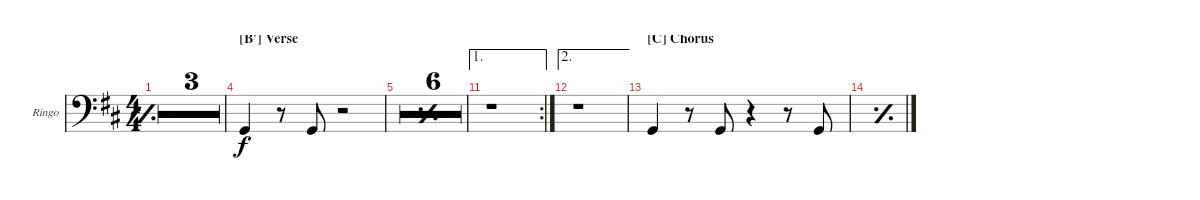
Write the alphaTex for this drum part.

\defaultSystemsLayout 4
\bracketExtendMode groupsimilarinstruments
\firstSystemTrackNameOrientation horizontal
\otherSystemsTrackNameOrientation horizontal
\track ("Ringo Starr - Legs" "Ringo") {multiBarRest instrument percussion}
\staff {score}
\articulation defaults
\ts (4 4)
\tempo 111
\clef f4
\simile simple
\scale
0.333333
\ks d
|
\scale
0.333333 |
\simile none
\scale
0.333333 r.1 |
\section ("B'" "Verse")
\scale
0.333333 "Kick (hit)".4 r.8 "Kick (hit)".8 r.2 |
\simile simple
\scale
0.333333 |
\scale
0.333333 |
\scale
0.333333 |
\scale
0.333333 |
\scale
0.333333 |
\scale
0.333333 |
\ae 1
\rc 2
\simile none
\scale
0.356322 r.1 |
\ae 2
\scale
0.321839 r.1 |
\section ("C" "Chorus")
\scale
0.321839 "Kick (hit)".4 r.8 "Kick (hit)".8 r.4 r.8 "Kick (hit)".8 |
\simile simple
